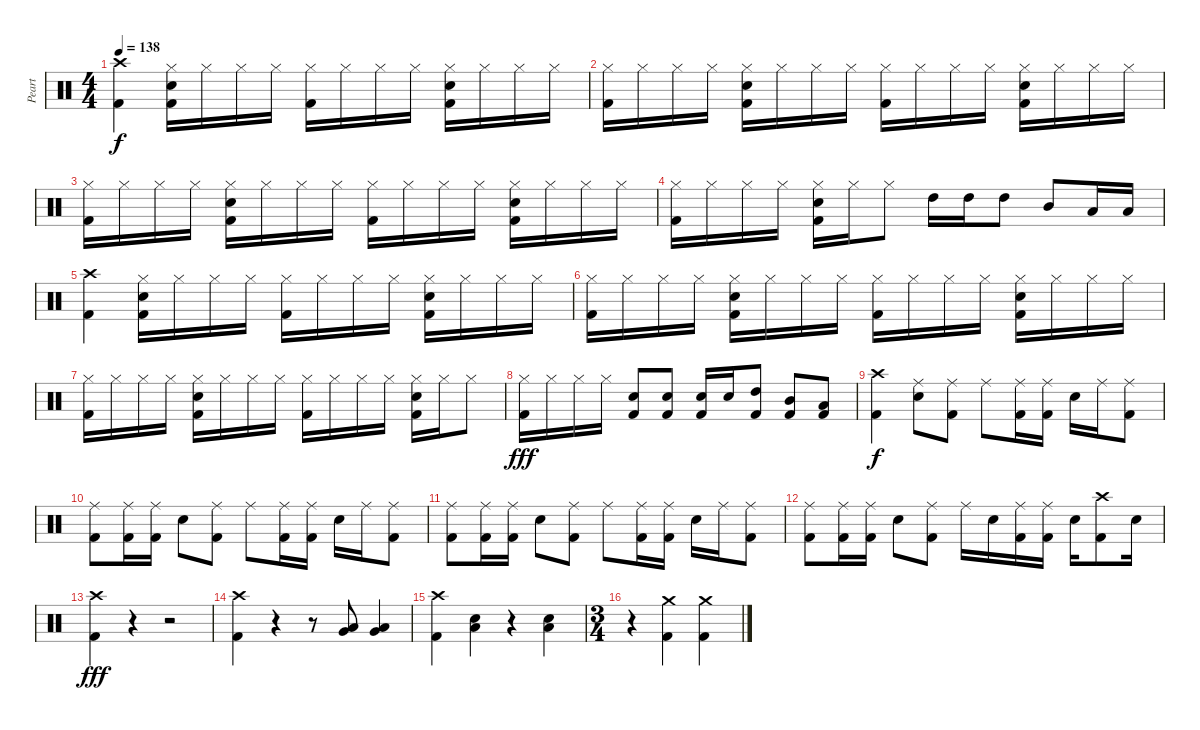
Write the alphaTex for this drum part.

\track ("Peart" "Peart") {instrument percussion}
\staff {score}
\articulation defaults
\ts (4 4)
\tempo 138
\clef neutral
\ks c
("Crash high (hit)" "Kick (hit) 2").4{dy f} ("Hi-Hat (closed)" "Kick (hit) 2" "Electric Snare (hit)").16 "Hi-Hat (closed)".16 "Hi-Hat (closed)".16 "Hi-Hat (closed)".16 ("Hi-Hat (closed)" "Kick (hit) 2").16 "Hi-Hat (closed)".16 "Hi-Hat (closed)".16 "Hi-Hat (closed)".16 ("Hi-Hat (closed)" "Electric Snare (hit)" "Kick (hit) 2").16 "Hi-Hat (closed)".16 "Hi-Hat (closed)".16 "Hi-Hat (closed)".16 |
("Hi-Hat (closed)" "Kick (hit) 2").16 "Hi-Hat (closed)".16 "Hi-Hat (closed)".16 "Hi-Hat (closed)".16 ("Hi-Hat (closed)" "Electric Snare (hit)" "Kick (hit) 2").16 "Hi-Hat (closed)".16 "Hi-Hat (closed)".16 "Hi-Hat (closed)".16 ("Hi-Hat (closed)" "Kick (hit) 2").16 "Hi-Hat (closed)".16 "Hi-Hat (closed)".16 "Hi-Hat (closed)".16 ("Hi-Hat (closed)" "Electric Snare (hit)" "Kick (hit) 2").16 "Hi-Hat (closed)".16 "Hi-Hat (closed)".16 "Hi-Hat (closed)".16 |
("Hi-Hat (closed)" "Kick (hit) 2").16 "Hi-Hat (closed)".16 "Hi-Hat (closed)".16 "Hi-Hat (closed)".16 ("Hi-Hat (closed)" "Electric Snare (hit)" "Kick (hit) 2").16 "Hi-Hat (closed)".16 "Hi-Hat (closed)".16 "Hi-Hat (closed)".16 ("Hi-Hat (closed)" "Kick (hit) 2").16 "Hi-Hat (closed)".16 "Hi-Hat (closed)".16 "Hi-Hat (closed)".16 ("Hi-Hat (closed)" "Electric Snare (hit)" "Kick (hit) 2").16 "Hi-Hat (closed)".16 "Hi-Hat (closed)".16 "Hi-Hat (closed)".16 |
("Hi-Hat (closed)" "Kick (hit) 2").16 "Hi-Hat (closed)".16 "Hi-Hat (closed)".16 "Hi-Hat (closed)".16 ("Hi-Hat (closed)" "Electric Snare (hit)" "Kick (hit) 2").16 "Hi-Hat (closed)".16 "Hi-Hat (closed)".8 "High Tom (hit)".16 "High Tom (hit)".16 "High Tom (hit)".8 "Mid Tom (hit)".8 "Low Tom (hit)".16 "Low Tom (hit)".16 |
("Crash high (hit)" "Kick (hit) 2").4 ("Hi-Hat (closed)" "Kick (hit) 2" "Electric Snare (hit)").16 "Hi-Hat (closed)".16 "Hi-Hat (closed)".16 "Hi-Hat (closed)".16 ("Hi-Hat (closed)" "Kick (hit) 2").16 "Hi-Hat (closed)".16 "Hi-Hat (closed)".16 "Hi-Hat (closed)".16 ("Hi-Hat (closed)" "Electric Snare (hit)" "Kick (hit) 2").16 "Hi-Hat (closed)".16 "Hi-Hat (closed)".16 "Hi-Hat (closed)".16 |
("Hi-Hat (closed)" "Kick (hit) 2").16 "Hi-Hat (closed)".16 "Hi-Hat (closed)".16 "Hi-Hat (closed)".16 ("Hi-Hat (closed)" "Electric Snare (hit)" "Kick (hit) 2").16 "Hi-Hat (closed)".16 "Hi-Hat (closed)".16 "Hi-Hat (closed)".16 ("Hi-Hat (closed)" "Kick (hit) 2").16 "Hi-Hat (closed)".16 "Hi-Hat (closed)".16 "Hi-Hat (closed)".16 ("Hi-Hat (closed)" "Electric Snare (hit)" "Kick (hit) 2").16 "Hi-Hat (closed)".16 "Hi-Hat (closed)".16 "Hi-Hat (closed)".16 |
("Hi-Hat (closed)" "Kick (hit) 2").16 "Hi-Hat (closed)".16 "Hi-Hat (closed)".16 "Hi-Hat (closed)".16 ("Hi-Hat (closed)" "Electric Snare (hit)" "Kick (hit) 2").16 "Hi-Hat (closed)".16 "Hi-Hat (closed)".16 "Hi-Hat (closed)".16 ("Hi-Hat (closed)" "Kick (hit) 2").16 "Hi-Hat (closed)".16 "Hi-Hat (closed)".16 "Hi-Hat (closed)".16 ("Hi-Hat (closed)" "Electric Snare (hit)" "Kick (hit) 2").16 "Hi-Hat (closed)".16 "Hi-Hat (closed)".8 |
("Hi-Hat (closed)" "Kick (hit) 2").16{dy fff} "Hi-Hat (closed)".16 "Hi-Hat (closed)".16 "Hi-Hat (closed)".16 ("Electric Snare (hit)" "Kick (hit) 2").8 ("Electric Snare (hit)" "Kick (hit) 2").8 ("Electric Snare (hit)" "Kick (hit) 2").16 "Electric Snare (hit)".16 ("High Tom (hit)" "Kick (hit) 2").8 ("Mid Tom (hit)" "Kick (hit) 2").8 ("Low Tom (hit)" "Kick (hit) 2").8 |
("Crash high (hit)" "Kick (hit) 2").4{dy f} ("Ride (middle)" "Electric Snare (hit)").8 ("Ride (middle)" "Kick (hit) 2").8 "Ride (middle)".8 ("Ride (middle)" "Kick (hit) 2").16 ("Ride (middle)" "Kick (hit) 2").16 "Electric Snare (hit)".16 "Ride (middle)".16 ("Ride (middle)" "Kick (hit) 2").8 |
("Ride (middle)" "Kick (hit) 2").8 ("Ride (middle)" "Kick (hit) 2").16 ("Ride (middle)" "Kick (hit) 2").16 "Electric Snare (hit)".8 ("Ride (middle)" "Kick (hit) 2").8 "Ride (middle)".8 ("Ride (middle)" "Kick (hit) 2").16 ("Ride (middle)" "Kick (hit) 2").16 "Electric Snare (hit)".16 "Ride (middle)".16 ("Ride (middle)" "Kick (hit) 2").8 |
("Ride (middle)" "Kick (hit) 2").8 ("Ride (middle)" "Kick (hit) 2").16 ("Ride (middle)" "Kick (hit) 2").16 "Electric Snare (hit)".8 ("Ride (middle)" "Kick (hit) 2").8 "Ride (middle)".8 ("Ride (middle)" "Kick (hit) 2").16 ("Ride (middle)" "Kick (hit) 2").16 "Electric Snare (hit)".16 "Ride (middle)".16 ("Ride (middle)" "Kick (hit) 2").8 |
("Ride (middle)" "Kick (hit) 2").8 ("Ride (middle)" "Kick (hit) 2").16 ("Ride (middle)" "Kick (hit) 2").16 "Electric Snare (hit)".8 ("Ride (middle)" "Kick (hit) 2").8 "Ride (middle)".16 "Electric Snare (hit)".16 ("Ride (middle)" "Kick (hit) 2").16 ("Ride (middle)" "Kick (hit) 2").16 "Electric Snare (hit)".16 ("Crash high (hit)" "Kick (hit) 2").8 "Electric Snare (hit)".16 |
("Kick (hit) 2" "Crash high (hit)").4{dy fff} r.4 r.2 |
("Kick (hit) 2" "Crash high (hit)").4 r.4 r.8 ("Low Floor Tom (hit)" "Very Low Tom (hit)").8 ("Very Low Tom (hit)" "Low Floor Tom (hit)").4 |
("Crash high (hit)" "Kick (hit) 2").4 ("Electric Snare (hit)" "Low Floor Tom (hit)").4 r.4 ("Electric Snare (hit)" "Low Floor Tom (hit)").4 |
\ts (3 4)
r.4 ("Crash medium (hit)" "Kick (hit) 2").4 ("Crash medium (hit)" "Kick (hit) 2").4
